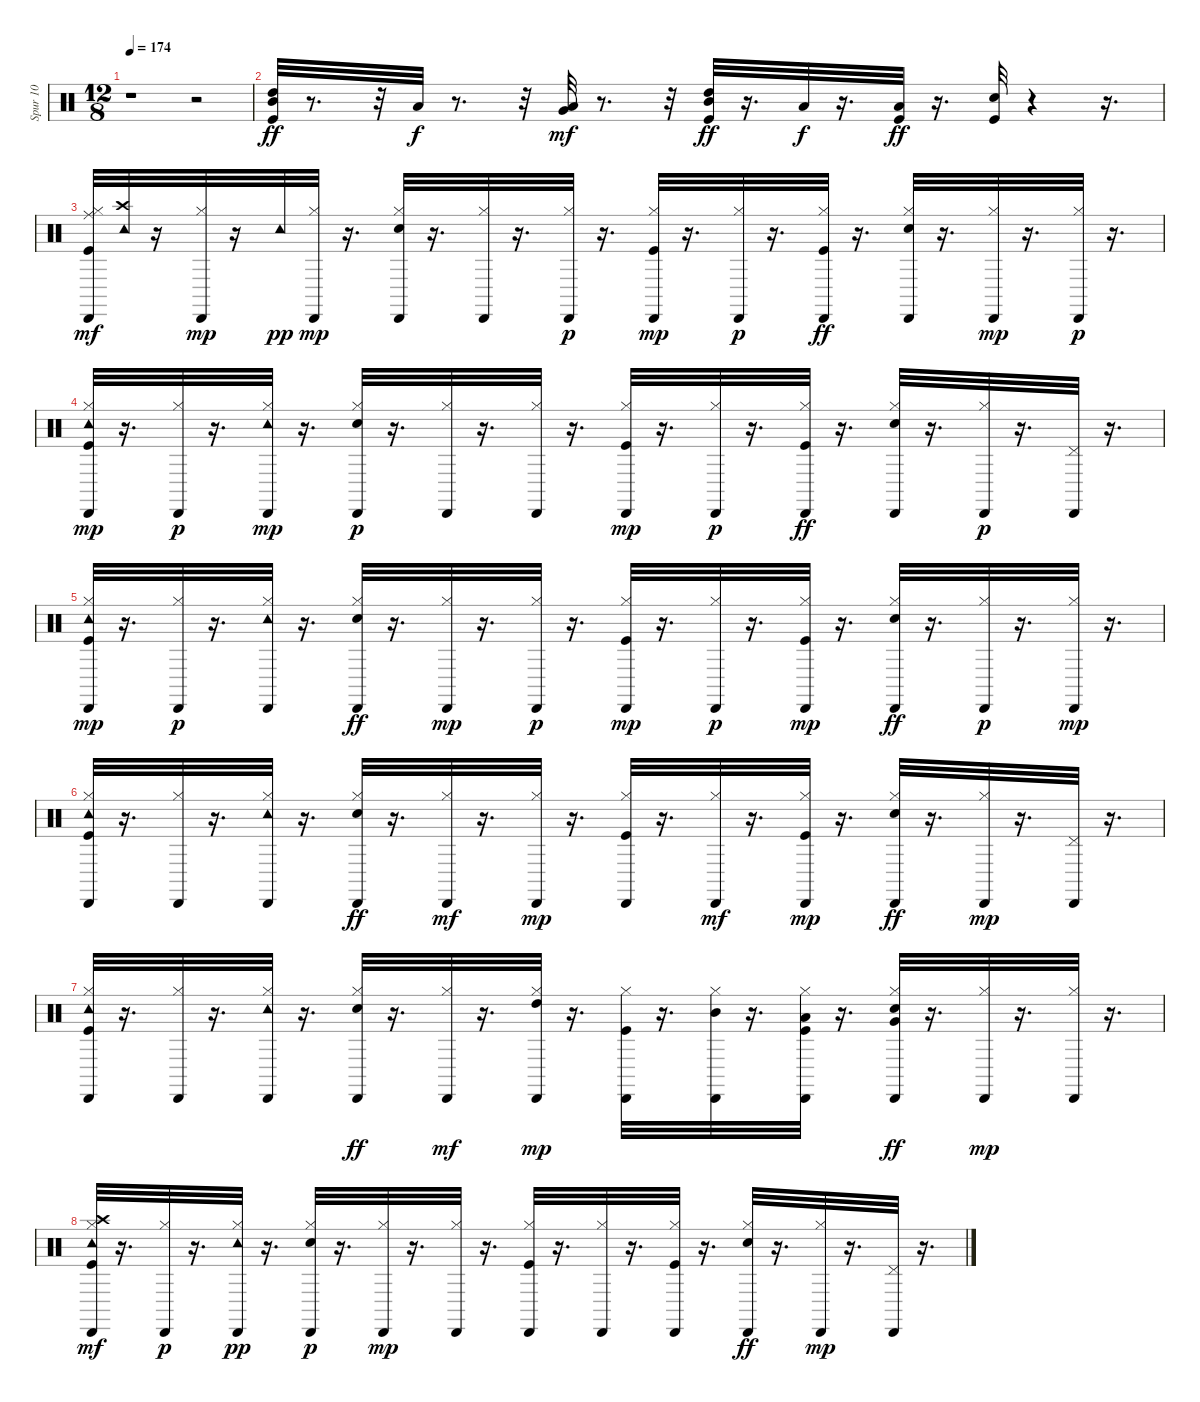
\track ("Spur 10" "Spur 10") {instrument percussion}
\staff {score}
\articulation defaults
\ts (12 8)
\tempo 174
\clef neutral
\ks c
r.1{dy ff} r.2 |
("Mid Tom (hit)" "High Tom (hit)" "Kick (hit)").32 r.8{d} r.32 "Low Tom (hit)".32{dy f} r.8{d} r.32 ("Low Floor Tom (hit)" "Very Low Tom (hit)").32{dy mf} r.8{d} r.32 ("Mid Tom (hit)" "Kick (hit)" "High Tom (hit)").32{dy ff} r.16{d} "Low Tom (hit)".32{dy f} r.16{d} ("Kick (hit)" "Low Tom (hit)").32{dy ff} r.16{d} ("Kick (hit)" "Electric Snare (hit)").32 r.4 r.16{d} |
("Ride (middle)" "Kick (hit)" "Cabasa (hit)" "Hi-Hat (closed)").32{dy mf} ("Tambourine (hit)" "Crash high (hit)").32 r.16 ("Cabasa (hit)" "Hi-Hat (closed)").32{dy mp} r.16 "Tambourine (hit)".32{dy pp} ("Cabasa (hit)" "Hi-Hat (closed)").32{dy mp} r.16{d} ("Cabasa (hit)" "Electric Snare (hit)" "Hi-Hat (closed)").32 r.16{d} ("Cabasa (hit)" "Hi-Hat (closed)").32 r.16{d} ("Cabasa (hit)" "Hi-Hat (closed)").32{dy p} r.16{d} ("Hi-Hat (closed)" "Kick (hit)" "Cabasa (hit)").32{dy mp} r.16{d} ("Hi-Hat (closed)" "Cabasa (hit)").32{dy p} r.16{d} ("Hi-Hat (closed)" "Cabasa (hit)" "Kick (hit)").32{dy ff} r.16{d} ("Hi-Hat (closed)" "Cabasa (hit)" "Electric Snare (hit)").32 r.16{d} ("Hi-Hat (closed)" "Cabasa (hit)").32{dy mp} r.16{d} ("Hi-Hat (closed)" "Cabasa (hit)").32{dy p} r.16{d} |
("Tambourine (hit)" "Hi-Hat (closed)" "Kick (hit)" "Cabasa (hit)").32{dy mp} r.16{d} ("Hi-Hat (closed)" "Cabasa (hit)").32{dy p} r.16{d} ("Tambourine (hit)" "Hi-Hat (closed)" "Cabasa (hit)").32{dy mp} r.16{d} ("Hi-Hat (closed)" "Electric Snare (hit)" "Cabasa (hit)").32{dy p} r.16{d} ("Hi-Hat (closed)" "Cabasa (hit)").32 r.16{d} ("Hi-Hat (closed)" "Cabasa (hit)").32 r.16{d} ("Hi-Hat (closed)" "Kick (hit)" "Cabasa (hit)").32{dy mp} r.16{d} ("Hi-Hat (closed)" "Cabasa (hit)").32{dy p} r.16{d} ("Hi-Hat (closed)" "Cabasa (hit)" "Kick (hit)").32{dy ff} r.16{d} ("Hi-Hat (closed)" "Cabasa (hit)" "Electric Snare (hit)").32 r.16{d} ("Hi-Hat (closed)" "Cabasa (hit)").32{dy p} r.16{d} ("Pedal Hi-Hat (hit)" "Cabasa (hit)").32 r.16{d} |
("Tambourine (hit)" "Hi-Hat (closed)" "Kick (hit)" "Cabasa (hit)").32{dy mp} r.16{d} ("Hi-Hat (closed)" "Cabasa (hit)").32{dy p} r.16{d} ("Tambourine (hit)" "Hi-Hat (closed)" "Cabasa (hit)").32 r.16{d} ("Hi-Hat (closed)" "Cabasa (hit)" "Electric Snare (hit)").32{dy ff} r.16{d} ("Hi-Hat (closed)" "Cabasa (hit)").32{dy mp} r.16{d} ("Hi-Hat (closed)" "Cabasa (hit)").32{dy p} r.16{d} ("Hi-Hat (closed)" "Kick (hit)" "Cabasa (hit)").32{dy mp} r.16{d} ("Hi-Hat (closed)" "Cabasa (hit)").32{dy p} r.16{d} ("Hi-Hat (closed)" "Kick (hit)" "Cabasa (hit)").32{dy mp} r.16{d} ("Hi-Hat (closed)" "Cabasa (hit)" "Electric Snare (hit)").32{dy ff} r.16{d} ("Hi-Hat (closed)" "Cabasa (hit)").32{dy p} r.16{d} ("Hi-Hat (closed)" "Cabasa (hit)").32{dy mp} r.16{d} |
("Tambourine (hit)" "Hi-Hat (closed)" "Kick (hit)" "Cabasa (hit)").32 r.16{d} ("Cabasa (hit)" "Hi-Hat (closed)").32 r.16{d} ("Tambourine (hit)" "Cabasa (hit)" "Hi-Hat (closed)").32 r.16{d} ("Cabasa (hit)" "Hi-Hat (closed)" "Electric Snare (hit)").32{dy ff} r.16{d} ("Cabasa (hit)" "Hi-Hat (closed)").32{dy mf} r.16{d} ("Hi-Hat (closed)" "Cabasa (hit)").32{dy mp} r.16{d} ("Cabasa (hit)" "Hi-Hat (closed)" "Kick (hit)").32 r.16{d} ("Cabasa (hit)" "Hi-Hat (closed)").32{dy mf} r.16{d} ("Cabasa (hit)" "Hi-Hat (closed)" "Kick (hit)").32{dy mp} r.16{d} ("Hi-Hat (closed)" "Cabasa (hit)" "Electric Snare (hit)").32{dy ff} r.16{d} ("Hi-Hat (closed)" "Cabasa (hit)").32{dy mp} r.16{d} ("Pedal Hi-Hat (hit)" "Cabasa (hit)").32 r.16{d} |
("Tambourine (hit)" "Hi-Hat (closed)" "Kick (hit)" "Cabasa (hit)").32 r.16{d} ("Cabasa (hit)" "Hi-Hat (closed)").32 r.16{d} ("Tambourine (hit)" "Hi-Hat (closed)" "Cabasa (hit)").32 r.16{d} ("Cabasa (hit)" "Hi-Hat (closed)" "Electric Snare (hit)").32{dy ff} r.16{d} ("Cabasa (hit)" "Hi-Hat (closed)").32{dy mf} r.16{d} ("Hi-Hat (closed)" "Cabasa (hit)" "High Tom (hit)").32{dy mp} r.16{d} ("Kick (hit)" "Hi-Hat (closed)" "Cabasa (hit)").32 r.16{d} ("Cabasa (hit)" "Hi-Hat (closed)" "Mid Tom (hit)").32 r.16{d} ("Kick (hit)" "Low Tom (hit)" "Hi-Hat (closed)" "Cabasa (hit)").32 r.16{d} ("Very Low Tom (hit)" "Cabasa (hit)" "Hi-Hat (closed)" "Electric Snare (hit)").32{dy ff} r.16{d} ("Hi-Hat (closed)" "Cabasa (hit)").32{dy mp} r.16{d} ("Hi-Hat (closed)" "Cabasa (hit)").32 r.16{d} |
("Hi-Hat (closed)" "Kick (hit)" "Tambourine (hit)" "Cabasa (hit)" "Crash high (hit)").32{dy mf} r.16{d} ("Hi-Hat (closed)" "Cabasa (hit)").32{dy p} r.16{d} ("Hi-Hat (closed)" "Cabasa (hit)" "Tambourine (hit)").32{dy pp} r.16{d} ("Hi-Hat (closed)" "Electric Snare (hit)" "Cabasa (hit)").32{dy p} r.16{d} ("Hi-Hat (closed)" "Cabasa (hit)").32{dy mp} r.16{d} ("Hi-Hat (closed)" "Cabasa (hit)").32 r.16{d} ("Hi-Hat (closed)" "Kick (hit)" "Cabasa (hit)").32 r.16{d} ("Cabasa (hit)" "Hi-Hat (closed)").32 r.16{d} ("Hi-Hat (closed)" "Cabasa (hit)" "Kick (hit)").32 r.16{d} ("Hi-Hat (closed)" "Cabasa (hit)" "Electric Snare (hit)").32{dy ff} r.16{d} ("Hi-Hat (closed)" "Cabasa (hit)").32{dy mp} r.16{d} ("Pedal Hi-Hat (hit)" "Cabasa (hit)").32 r.16{d}
